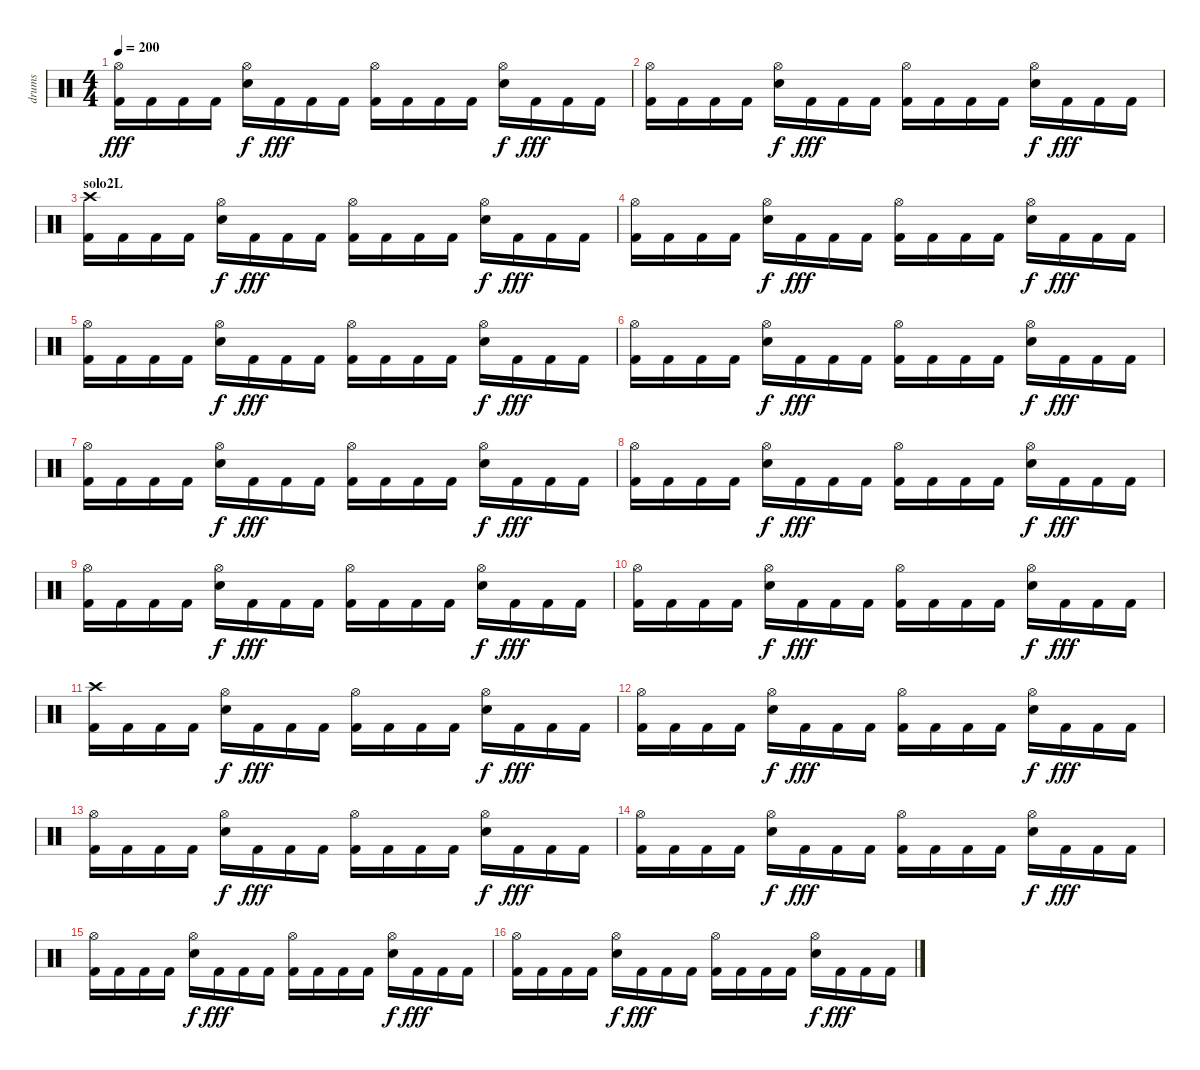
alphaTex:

\track ("drums" "drums") {instrument percussion}
\staff {score}
\articulation defaults
\ts (4 4)
\tempo 200
\clef neutral
\ks c
("Hi-Hat (open)" "Kick (hit) 2").16{dy fff} "Kick (hit) 2".16 "Kick (hit) 2".16 "Kick (hit) 2".16 ("Hi-Hat (open)" "Snare (hit) 2").16{dy f} "Kick (hit) 2".16{dy fff} "Kick (hit) 2".16 "Kick (hit) 2".16 ("Hi-Hat (open)" "Kick (hit) 2").16 "Kick (hit) 2".16 "Kick (hit) 2".16 "Kick (hit) 2".16 ("Hi-Hat (open)" "Snare (hit) 2").16{dy f} "Kick (hit) 2".16{dy fff} "Kick (hit) 2".16 "Kick (hit) 2".16 |
("Hi-Hat (open)" "Kick (hit) 2").16 "Kick (hit) 2".16 "Kick (hit) 2".16 "Kick (hit) 2".16 ("Hi-Hat (open)" "Snare (hit) 2").16{dy f} "Kick (hit) 2".16{dy fff} "Kick (hit) 2".16 "Kick (hit) 2".16 ("Hi-Hat (open)" "Kick (hit) 2").16 "Kick (hit) 2".16 "Kick (hit) 2".16 "Kick (hit) 2".16 ("Hi-Hat (open)" "Snare (hit) 2").16{dy f} "Kick (hit) 2".16{dy fff} "Kick (hit) 2".16 "Kick (hit) 2".16 |
\section ("" "solo2L")
("Crash high (hit)" "Kick (hit) 2").16 "Kick (hit) 2".16 "Kick (hit) 2".16 "Kick (hit) 2".16 ("Hi-Hat (open)" "Snare (hit) 2").16{dy f} "Kick (hit) 2".16{dy fff} "Kick (hit) 2".16 "Kick (hit) 2".16 ("Hi-Hat (open)" "Kick (hit) 2").16 "Kick (hit) 2".16 "Kick (hit) 2".16 "Kick (hit) 2".16 ("Hi-Hat (open)" "Snare (hit) 2").16{dy f} "Kick (hit) 2".16{dy fff} "Kick (hit) 2".16 "Kick (hit) 2".16 |
("Hi-Hat (open)" "Kick (hit) 2").16 "Kick (hit) 2".16 "Kick (hit) 2".16 "Kick (hit) 2".16 ("Hi-Hat (open)" "Snare (hit) 2").16{dy f} "Kick (hit) 2".16{dy fff} "Kick (hit) 2".16 "Kick (hit) 2".16 ("Hi-Hat (open)" "Kick (hit) 2").16 "Kick (hit) 2".16 "Kick (hit) 2".16 "Kick (hit) 2".16 ("Hi-Hat (open)" "Snare (hit) 2").16{dy f} "Kick (hit) 2".16{dy fff} "Kick (hit) 2".16 "Kick (hit) 2".16 |
("Hi-Hat (open)" "Kick (hit) 2").16 "Kick (hit) 2".16 "Kick (hit) 2".16 "Kick (hit) 2".16 ("Hi-Hat (open)" "Snare (hit) 2").16{dy f} "Kick (hit) 2".16{dy fff} "Kick (hit) 2".16 "Kick (hit) 2".16 ("Hi-Hat (open)" "Kick (hit) 2").16 "Kick (hit) 2".16 "Kick (hit) 2".16 "Kick (hit) 2".16 ("Hi-Hat (open)" "Snare (hit) 2").16{dy f} "Kick (hit) 2".16{dy fff} "Kick (hit) 2".16 "Kick (hit) 2".16 |
("Hi-Hat (open)" "Kick (hit) 2").16 "Kick (hit) 2".16 "Kick (hit) 2".16 "Kick (hit) 2".16 ("Hi-Hat (open)" "Snare (hit) 2").16{dy f} "Kick (hit) 2".16{dy fff} "Kick (hit) 2".16 "Kick (hit) 2".16 ("Hi-Hat (open)" "Kick (hit) 2").16 "Kick (hit) 2".16 "Kick (hit) 2".16 "Kick (hit) 2".16 ("Hi-Hat (open)" "Snare (hit) 2").16{dy f} "Kick (hit) 2".16{dy fff} "Kick (hit) 2".16 "Kick (hit) 2".16 |
("Hi-Hat (open)" "Kick (hit) 2").16 "Kick (hit) 2".16 "Kick (hit) 2".16 "Kick (hit) 2".16 ("Hi-Hat (open)" "Snare (hit) 2").16{dy f} "Kick (hit) 2".16{dy fff} "Kick (hit) 2".16 "Kick (hit) 2".16 ("Hi-Hat (open)" "Kick (hit) 2").16 "Kick (hit) 2".16 "Kick (hit) 2".16 "Kick (hit) 2".16 ("Hi-Hat (open)" "Snare (hit) 2").16{dy f} "Kick (hit) 2".16{dy fff} "Kick (hit) 2".16 "Kick (hit) 2".16 |
("Hi-Hat (open)" "Kick (hit) 2").16 "Kick (hit) 2".16 "Kick (hit) 2".16 "Kick (hit) 2".16 ("Hi-Hat (open)" "Snare (hit) 2").16{dy f} "Kick (hit) 2".16{dy fff} "Kick (hit) 2".16 "Kick (hit) 2".16 ("Hi-Hat (open)" "Kick (hit) 2").16 "Kick (hit) 2".16 "Kick (hit) 2".16 "Kick (hit) 2".16 ("Hi-Hat (open)" "Snare (hit) 2").16{dy f} "Kick (hit) 2".16{dy fff} "Kick (hit) 2".16 "Kick (hit) 2".16 |
("Hi-Hat (open)" "Kick (hit) 2").16 "Kick (hit) 2".16 "Kick (hit) 2".16 "Kick (hit) 2".16 ("Hi-Hat (open)" "Snare (hit) 2").16{dy f} "Kick (hit) 2".16{dy fff} "Kick (hit) 2".16 "Kick (hit) 2".16 ("Hi-Hat (open)" "Kick (hit) 2").16 "Kick (hit) 2".16 "Kick (hit) 2".16 "Kick (hit) 2".16 ("Hi-Hat (open)" "Snare (hit) 2").16{dy f} "Kick (hit) 2".16{dy fff} "Kick (hit) 2".16 "Kick (hit) 2".16 |
("Hi-Hat (open)" "Kick (hit) 2").16 "Kick (hit) 2".16 "Kick (hit) 2".16 "Kick (hit) 2".16 ("Hi-Hat (open)" "Snare (hit) 2").16{dy f} "Kick (hit) 2".16{dy fff} "Kick (hit) 2".16 "Kick (hit) 2".16 ("Hi-Hat (open)" "Kick (hit) 2").16 "Kick (hit) 2".16 "Kick (hit) 2".16 "Kick (hit) 2".16 ("Hi-Hat (open)" "Snare (hit) 2").16{dy f} "Kick (hit) 2".16{dy fff} "Kick (hit) 2".16 "Kick (hit) 2".16 |
("Crash high (hit)" "Kick (hit) 2").16 "Kick (hit) 2".16 "Kick (hit) 2".16 "Kick (hit) 2".16 ("Hi-Hat (open)" "Snare (hit) 2").16{dy f} "Kick (hit) 2".16{dy fff} "Kick (hit) 2".16 "Kick (hit) 2".16 ("Hi-Hat (open)" "Kick (hit) 2").16 "Kick (hit) 2".16 "Kick (hit) 2".16 "Kick (hit) 2".16 ("Hi-Hat (open)" "Snare (hit) 2").16{dy f} "Kick (hit) 2".16{dy fff} "Kick (hit) 2".16 "Kick (hit) 2".16 |
("Hi-Hat (open)" "Kick (hit) 2").16 "Kick (hit) 2".16 "Kick (hit) 2".16 "Kick (hit) 2".16 ("Hi-Hat (open)" "Snare (hit) 2").16{dy f} "Kick (hit) 2".16{dy fff} "Kick (hit) 2".16 "Kick (hit) 2".16 ("Hi-Hat (open)" "Kick (hit) 2").16 "Kick (hit) 2".16 "Kick (hit) 2".16 "Kick (hit) 2".16 ("Hi-Hat (open)" "Snare (hit) 2").16{dy f} "Kick (hit) 2".16{dy fff} "Kick (hit) 2".16 "Kick (hit) 2".16 |
("Hi-Hat (open)" "Kick (hit) 2").16 "Kick (hit) 2".16 "Kick (hit) 2".16 "Kick (hit) 2".16 ("Hi-Hat (open)" "Snare (hit) 2").16{dy f} "Kick (hit) 2".16{dy fff} "Kick (hit) 2".16 "Kick (hit) 2".16 ("Hi-Hat (open)" "Kick (hit) 2").16 "Kick (hit) 2".16 "Kick (hit) 2".16 "Kick (hit) 2".16 ("Hi-Hat (open)" "Snare (hit) 2").16{dy f} "Kick (hit) 2".16{dy fff} "Kick (hit) 2".16 "Kick (hit) 2".16 |
("Hi-Hat (open)" "Kick (hit) 2").16 "Kick (hit) 2".16 "Kick (hit) 2".16 "Kick (hit) 2".16 ("Hi-Hat (open)" "Snare (hit) 2").16{dy f} "Kick (hit) 2".16{dy fff} "Kick (hit) 2".16 "Kick (hit) 2".16 ("Hi-Hat (open)" "Kick (hit) 2").16 "Kick (hit) 2".16 "Kick (hit) 2".16 "Kick (hit) 2".16 ("Hi-Hat (open)" "Snare (hit) 2").16{dy f} "Kick (hit) 2".16{dy fff} "Kick (hit) 2".16 "Kick (hit) 2".16 |
("Hi-Hat (open)" "Kick (hit) 2").16 "Kick (hit) 2".16 "Kick (hit) 2".16 "Kick (hit) 2".16 ("Hi-Hat (open)" "Snare (hit) 2").16{dy f} "Kick (hit) 2".16{dy fff} "Kick (hit) 2".16 "Kick (hit) 2".16 ("Hi-Hat (open)" "Kick (hit) 2").16 "Kick (hit) 2".16 "Kick (hit) 2".16 "Kick (hit) 2".16 ("Hi-Hat (open)" "Snare (hit) 2").16{dy f} "Kick (hit) 2".16{dy fff} "Kick (hit) 2".16 "Kick (hit) 2".16 |
("Hi-Hat (open)" "Kick (hit) 2").16 "Kick (hit) 2".16 "Kick (hit) 2".16 "Kick (hit) 2".16 ("Hi-Hat (open)" "Snare (hit) 2").16{dy f} "Kick (hit) 2".16{dy fff} "Kick (hit) 2".16 "Kick (hit) 2".16 ("Hi-Hat (open)" "Kick (hit) 2").16 "Kick (hit) 2".16 "Kick (hit) 2".16 "Kick (hit) 2".16 ("Hi-Hat (open)" "Snare (hit) 2").16{dy f} "Kick (hit) 2".16{dy fff} "Kick (hit) 2".16 "Kick (hit) 2".16
